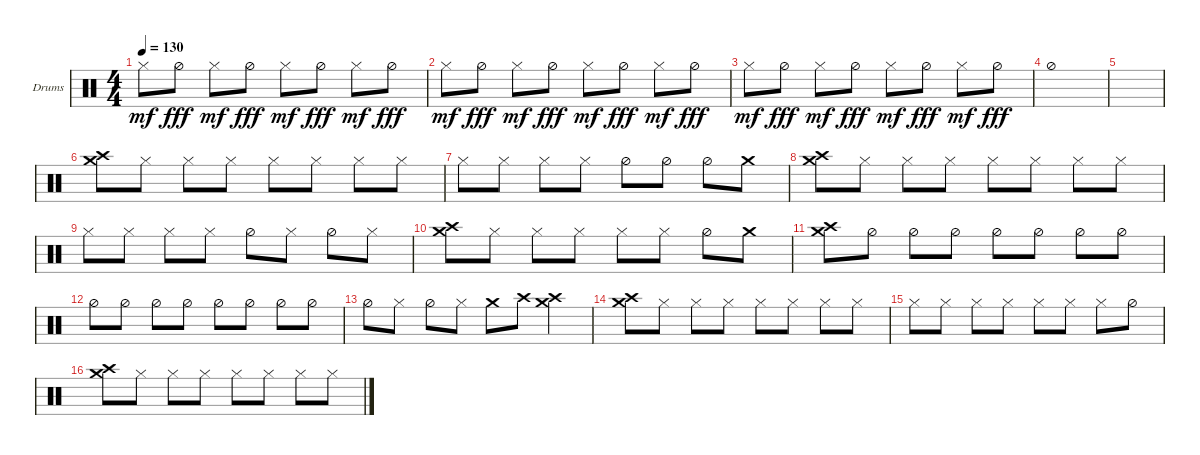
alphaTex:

\defaultSystemsLayout 4
\bracketExtendMode groupsimilarinstruments
\firstSystemTrackNameOrientation horizontal
\otherSystemsTrackNameOrientation horizontal
\track ("Helders" "Drums") {instrument percussion}
\staff {score}
\articulation defaults
\ts (4 4)
\tempo 130
\clef neutral
\ks c "Hi-Hat (closed)".8{dy mf} "Hi-Hat (half)".8{dy fff} "Hi-Hat (closed)".8{dy mf} "Hi-Hat (half)".8{dy fff} "Hi-Hat (closed)".8{dy mf} "Hi-Hat (half)".8{dy fff} "Hi-Hat (closed)".8{dy mf} "Hi-Hat (half)".8{dy fff}
|
"Hi-Hat (closed)".8{dy mf} "Hi-Hat (half)".8{dy fff} "Hi-Hat (closed)".8{dy mf} "Hi-Hat (half)".8{dy fff} "Hi-Hat (closed)".8{dy mf} "Hi-Hat (half)".8{dy fff} "Hi-Hat (closed)".8{dy mf} "Hi-Hat (half)".8{dy fff} |
"Hi-Hat (closed)".8{dy mf} "Hi-Hat (half)".8{dy fff} "Hi-Hat (closed)".8{dy mf} "Hi-Hat (half)".8{dy fff} "Hi-Hat (closed)".8{dy mf} "Hi-Hat (half)".8{dy fff} "Hi-Hat (closed)".8{dy mf} "Hi-Hat (half)".8{dy fff} |
"Hi-Hat (half)".1 |
|
("Crash medium (hit)" "Crash high (hit)").8 "Hi-Hat (closed)".8 "Hi-Hat (closed)".8 "Hi-Hat (closed)".8 "Hi-Hat (closed)".8 "Hi-Hat (closed)".8 "Hi-Hat (closed)".8 "Hi-Hat (closed)".8 |
"Hi-Hat (closed)".8 "Hi-Hat (closed)".8 "Hi-Hat (closed)".8 "Hi-Hat (closed)".8 "Hi-Hat (half)".8 "Hi-Hat (half)".8 "Hi-Hat (half)".8 "Crash medium (hit)".8 |
("Crash medium (hit)" "Crash high (hit)").8 "Hi-Hat (closed)".8 "Hi-Hat (closed)".8 "Hi-Hat (closed)".8 "Hi-Hat (closed)".8 "Hi-Hat (closed)".8 "Hi-Hat (closed)".8 "Hi-Hat (closed)".8 |
"Hi-Hat (closed)".8 "Hi-Hat (closed)".8 "Hi-Hat (closed)".8 "Hi-Hat (closed)".8 "Hi-Hat (half)".8 "Hi-Hat (closed)".8 "Hi-Hat (half)".8 "Hi-Hat (closed)".8 |
("Crash medium (hit)" "Crash high (hit)").8 "Hi-Hat (closed)".8 "Hi-Hat (closed)".8 "Hi-Hat (closed)".8 "Hi-Hat (closed)".8 "Hi-Hat (closed)".8 "Hi-Hat (half)".8 "Crash medium (hit)".8 |
("Crash high (hit)" "Crash medium (hit)").8 "Hi-Hat (half)".8 "Hi-Hat (half)".8 "Hi-Hat (half)".8 "Hi-Hat (half)".8 "Hi-Hat (half)".8 "Hi-Hat (half)".8 "Hi-Hat (half)".8 |
"Hi-Hat (half)".8 "Hi-Hat (half)".8 "Hi-Hat (half)".8 "Hi-Hat (half)".8 "Hi-Hat (half)".8 "Hi-Hat (half)".8 "Hi-Hat (half)".8 "Hi-Hat (half)".8 |
"Hi-Hat (half)".8 "Hi-Hat (closed)".8 "Hi-Hat (half)".8 "Hi-Hat (closed)".8 "Crash medium (hit)".8 "Crash high (hit)".8 ("Crash medium (hit)" "Crash high (hit)").4 |
("Crash medium (hit)" "Crash high (hit)").8 "Hi-Hat (closed)".8 "Hi-Hat (closed)".8 "Hi-Hat (closed)".8 "Hi-Hat (closed)".8 "Hi-Hat (closed)".8 "Hi-Hat (closed)".8 "Hi-Hat (closed)".8 |
"Hi-Hat (closed)".8 "Hi-Hat (closed)".8 "Hi-Hat (closed)".8 "Hi-Hat (closed)".8 "Hi-Hat (closed)".8 "Hi-Hat (closed)".8 "Hi-Hat (closed)".8 "Hi-Hat (half)".8 |
("Crash medium (hit)" "Crash high (hit)").8 "Hi-Hat (closed)".8 "Hi-Hat (closed)".8 "Hi-Hat (closed)".8 "Hi-Hat (closed)".8 "Hi-Hat (closed)".8 "Hi-Hat (closed)".8 "Hi-Hat (closed)".8
